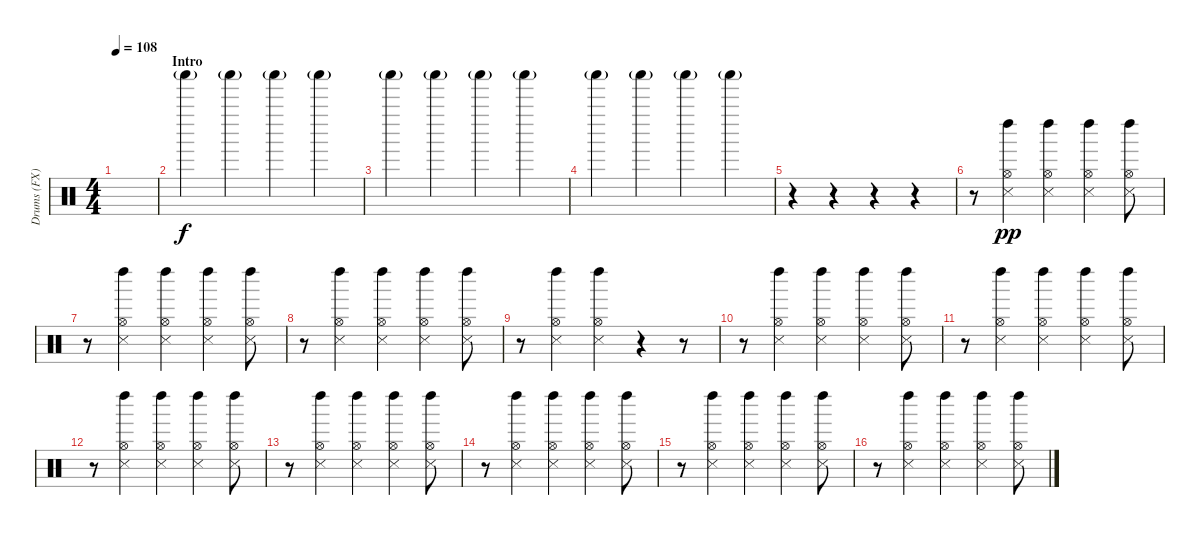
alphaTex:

\track ("Drums (FX)" "Drums (FX)") {instrument percussion}
\staff {score}
\articulation defaults
\ts (4 4)
\tempo 108
\clef neutral
\ks c
|
\section ("" "Intro")
"Shaker (hit)"{g}.4 "Shaker (hit)"{g}.4 "Shaker (hit)"{g}.4 "Shaker (hit)"{g}.4 |
"Shaker (hit)"{g}.4 "Shaker (hit)"{g}.4 "Shaker (hit)"{g}.4 "Shaker (hit)"{g}.4 |
"Shaker (hit)"{g}.4 "Shaker (hit)"{g}.4 "Shaker (hit)"{g}.4 "Shaker (hit)"{g}.4 |
r.4 r.4 r.4 r.4 |
r.8 ("Hi-Hat (open)" "Snare (side stick) 3" "Left Maraca (hit)").4{dy pp} ("Hi-Hat (open)" "Snare (side stick) 3" "Left Maraca (hit)").4 ("Hi-Hat (open)" "Snare (side stick) 3" "Left Maraca (hit)").4 ("Hi-Hat (open)" "Snare (side stick) 3" "Left Maraca (hit)").8 |
r.8 ("Hi-Hat (open)" "Snare (side stick) 3" "Left Maraca (hit)").4 ("Hi-Hat (open)" "Snare (side stick) 3" "Left Maraca (hit)").4 ("Hi-Hat (open)" "Snare (side stick) 3" "Left Maraca (hit)").4 ("Hi-Hat (open)" "Snare (side stick) 3" "Left Maraca (hit)").8 |
r.8 ("Hi-Hat (open)" "Snare (side stick) 3" "Left Maraca (hit)").4 ("Hi-Hat (open)" "Snare (side stick) 3" "Left Maraca (hit)").4 ("Hi-Hat (open)" "Snare (side stick) 3" "Left Maraca (hit)").4 ("Hi-Hat (open)" "Snare (side stick) 3" "Left Maraca (hit)").8 |
r.8 ("Hi-Hat (open)" "Snare (side stick) 3" "Left Maraca (hit)").4 ("Hi-Hat (open)" "Snare (side stick) 3" "Left Maraca (hit)").4 r.4 r.8 |
r.8 ("Hi-Hat (open)" "Snare (side stick) 3" "Left Maraca (hit)").4 ("Hi-Hat (open)" "Snare (side stick) 3" "Left Maraca (hit)").4 ("Hi-Hat (open)" "Snare (side stick) 3" "Left Maraca (hit)").4 ("Hi-Hat (open)" "Snare (side stick) 3" "Left Maraca (hit)").8 |
r.8 ("Hi-Hat (open)" "Snare (side stick) 3" "Left Maraca (hit)").4 ("Hi-Hat (open)" "Snare (side stick) 3" "Left Maraca (hit)").4 ("Hi-Hat (open)" "Snare (side stick) 3" "Left Maraca (hit)").4 ("Hi-Hat (open)" "Snare (side stick) 3" "Left Maraca (hit)").8 |
r.8 ("Hi-Hat (open)" "Snare (side stick) 3" "Left Maraca (hit)").4 ("Hi-Hat (open)" "Snare (side stick) 3" "Left Maraca (hit)").4 ("Hi-Hat (open)" "Snare (side stick) 3" "Left Maraca (hit)").4 ("Hi-Hat (open)" "Snare (side stick) 3" "Left Maraca (hit)").8 |
r.8 ("Hi-Hat (open)" "Snare (side stick) 3" "Left Maraca (hit)").4 ("Hi-Hat (open)" "Snare (side stick) 3" "Left Maraca (hit)").4 ("Hi-Hat (open)" "Snare (side stick) 3" "Left Maraca (hit)").4 ("Hi-Hat (open)" "Snare (side stick) 3" "Left Maraca (hit)").8 |
r.8 ("Hi-Hat (open)" "Snare (side stick) 3" "Left Maraca (hit)").4 ("Hi-Hat (open)" "Snare (side stick) 3" "Left Maraca (hit)").4 ("Hi-Hat (open)" "Snare (side stick) 3" "Left Maraca (hit)").4 ("Hi-Hat (open)" "Snare (side stick) 3" "Left Maraca (hit)").8 |
r.8 ("Hi-Hat (open)" "Snare (side stick) 3" "Left Maraca (hit)").4 ("Hi-Hat (open)" "Snare (side stick) 3" "Left Maraca (hit)").4 ("Hi-Hat (open)" "Snare (side stick) 3" "Left Maraca (hit)").4 ("Hi-Hat (open)" "Snare (side stick) 3" "Left Maraca (hit)").8 |
r.8 ("Hi-Hat (open)" "Snare (side stick) 3" "Left Maraca (hit)").4 ("Hi-Hat (open)" "Snare (side stick) 3" "Left Maraca (hit)").4 ("Hi-Hat (open)" "Snare (side stick) 3" "Left Maraca (hit)").4 ("Hi-Hat (open)" "Snare (side stick) 3" "Left Maraca (hit)").8
